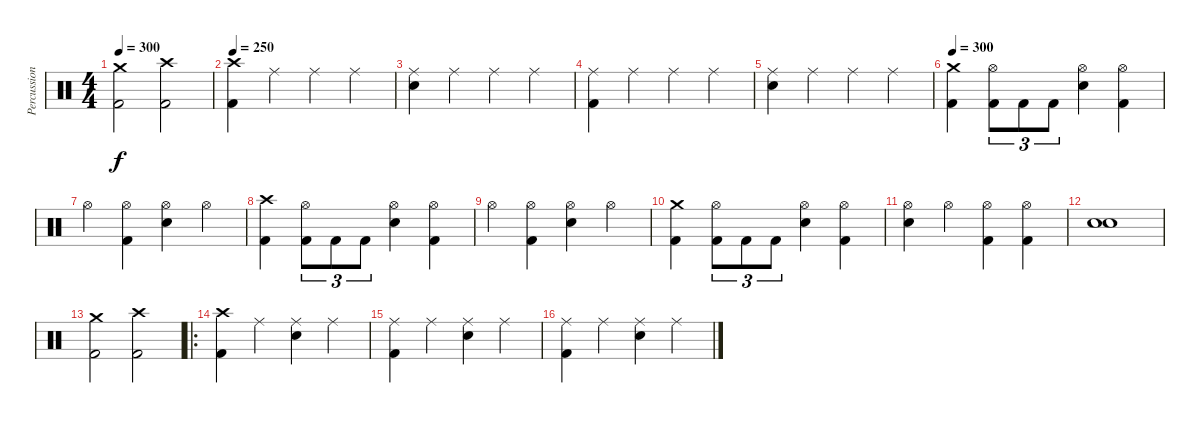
\track ("Percussion" "Percussion") {instrument percussion}
\staff {score}
\articulation defaults
\ts (4 4)
\tempo 300
\clef neutral
\ks c
("Crash medium (hit)" "Kick (hit) 2").2{dy f} ("Crash high (hit)" "Kick (hit) 2").2 |
\tempo 250
("Crash high (hit)" "Kick (hit) 2").4 "Ride (middle)".4 "Ride (middle)".4 "Ride (middle)".4 |
("Ride (middle)" "Snare (hit) 2").4 "Ride (middle)".4 "Ride (middle)".4 "Ride (middle)".4 |
("Ride (middle)" "Kick (hit) 2").4 "Ride (middle)".4 "Ride (middle)".4 "Ride (middle)".4 |
("Ride (middle)" "Snare (hit) 2").4 "Ride (middle)".4 "Ride (middle)".4 "Ride (middle)".4 |
\tempo 300
("Crash medium (hit)" "Kick (hit) 2").4 ("Hi-Hat (open)" "Kick (hit) 2").8{tu (3 2)} "Kick (hit) 2".8{tu (3 2)} "Kick (hit) 2".8{tu (3 2)} ("Hi-Hat (open)" "Snare (hit) 2").4 ("Hi-Hat (open)" "Kick (hit) 2").4 |
"Hi-Hat (open)".4 ("Hi-Hat (open)" "Kick (hit) 2").4 ("Hi-Hat (open)" "Snare (hit) 2").4 "Hi-Hat (open)".4 |
("Crash high (hit)" "Kick (hit) 2").4 ("Hi-Hat (open)" "Kick (hit) 2").8{tu (3 2)} "Kick (hit) 2".8{tu (3 2)} "Kick (hit) 2".8{tu (3 2)} ("Hi-Hat (open)" "Snare (hit) 2").4 ("Hi-Hat (open)" "Kick (hit) 2").4 |
"Hi-Hat (open)".4 ("Hi-Hat (open)" "Kick (hit) 2").4 ("Hi-Hat (open)" "Snare (hit) 2").4 "Hi-Hat (open)".4 |
("Crash medium (hit)" "Kick (hit) 2").4 ("Hi-Hat (open)" "Kick (hit) 2").8{tu (3 2)} "Kick (hit) 2".8{tu (3 2)} "Kick (hit) 2".8{tu (3 2)} ("Hi-Hat (open)" "Snare (hit) 2").4 ("Hi-Hat (open)" "Kick (hit) 2").4 |
("Hi-Hat (open)" "Snare (hit) 2").4 "Hi-Hat (open)".4 ("Hi-Hat (open)" "Kick (hit) 2").4 ("Hi-Hat (open)" "Kick (hit) 2").4 |
("Snare (hit) 2" "Snare (hit) 2").1 |
("Crash medium (hit)" "Kick (hit) 2").2 ("Crash high (hit)" "Kick (hit) 2").2 |
\ro
("Crash high (hit)" "Kick (hit) 2").4 "Ride (middle)".4 ("Ride (middle)" "Snare (hit) 2").4 "Ride (middle)".4 |
("Ride (middle)" "Kick (hit) 2").4 "Ride (middle)".4 ("Ride (middle)" "Snare (hit) 2").4 "Ride (middle)".4 |
("Ride (middle)" "Kick (hit) 2").4 "Ride (middle)".4 ("Ride (middle)" "Snare (hit) 2").4 "Ride (middle)".4
